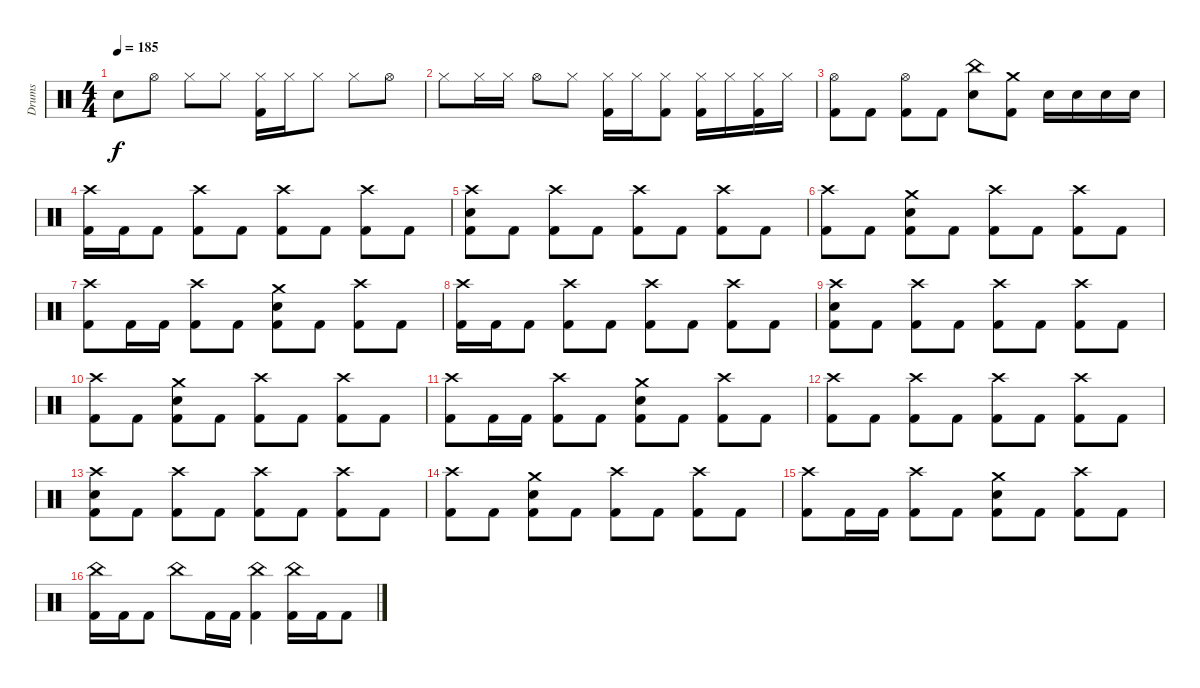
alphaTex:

\track ("Drums" "Drums") {instrument percussion}
\staff {score}
\articulation defaults
\ts (4 4)
\tempo 185
\clef neutral
\ks c "Electric Snare (hit)".8{dy f} "Hi-Hat (open)".8 "Hi-Hat (closed)".8 "Hi-Hat (closed)".8
("Hi-Hat (closed)" "Kick (hit) 2").16 "Hi-Hat (closed)".16 "Hi-Hat (closed)".8 "Hi-Hat (closed)".8 "Hi-Hat (open)".8 |
"Hi-Hat (closed)".8 "Hi-Hat (closed)".16 "Hi-Hat (closed)".16 "Hi-Hat (open)".8 "Hi-Hat (closed)".8 ("Hi-Hat (closed)" "Kick (hit) 2").16 "Hi-Hat (closed)".16 ("Hi-Hat (closed)" "Kick (hit) 2").8 ("Hi-Hat (closed)" "Kick (hit) 2").16 "Hi-Hat (closed)".16 ("Hi-Hat (closed)" "Kick (hit) 2").16 "Hi-Hat (closed)".16 |
("Hi-Hat (open)" "Kick (hit) 2").8 "Kick (hit) 2".8 ("Hi-Hat (open)" "Kick (hit) 2").8 "Kick (hit) 2".8 ("China (hit)" "Electric Snare (hit)").8 ("Crash medium (hit)" "Kick (hit) 2").8 "Electric Snare (hit)".16 "Electric Snare (hit)".16 "Electric Snare (hit)".16 "Electric Snare (hit)".16 |
("Crash high (hit)" "Kick (hit) 2").16 "Kick (hit) 2".16 "Kick (hit) 2".8 ("Crash high (hit)" "Kick (hit) 2").8 "Kick (hit) 2".8 ("Crash high (hit)" "Kick (hit) 2").8 "Kick (hit) 2".8 ("Crash high (hit)" "Kick (hit) 2").8 "Kick (hit) 2".8 |
("Crash high (hit)" "Electric Snare (hit)" "Kick (hit) 2").8 "Kick (hit) 2".8 ("Crash high (hit)" "Kick (hit) 2").8 "Kick (hit) 2".8 ("Crash high (hit)" "Kick (hit) 2").8 "Kick (hit) 2".8 ("Crash high (hit)" "Kick (hit) 2").8 "Kick (hit) 2".8 |
("Crash high (hit)" "Kick (hit) 2").8 "Kick (hit) 2".8 ("Crash medium (hit)" "Electric Snare (hit)" "Kick (hit) 2").8 "Kick (hit) 2".8 ("Crash high (hit)" "Kick (hit) 2").8 "Kick (hit) 2".8 ("Crash high (hit)" "Kick (hit) 2").8 "Kick (hit) 2".8 |
("Crash high (hit)" "Kick (hit) 2").8 "Kick (hit) 2".16 "Kick (hit) 2".16 ("Crash high (hit)" "Kick (hit) 2").8 "Kick (hit) 2".8 ("Crash medium (hit)" "Electric Snare (hit)" "Kick (hit) 2").8 "Kick (hit) 2".8 ("Crash high (hit)" "Kick (hit) 2").8 "Kick (hit) 2".8 |
("Crash high (hit)" "Kick (hit) 2").16 "Kick (hit) 2".16 "Kick (hit) 2".8 ("Crash high (hit)" "Kick (hit) 2").8 "Kick (hit) 2".8 ("Crash high (hit)" "Kick (hit) 2").8 "Kick (hit) 2".8 ("Crash high (hit)" "Kick (hit) 2").8 "Kick (hit) 2".8 |
("Crash high (hit)" "Electric Snare (hit)" "Kick (hit) 2").8 "Kick (hit) 2".8 ("Crash high (hit)" "Kick (hit) 2").8 "Kick (hit) 2".8 ("Crash high (hit)" "Kick (hit) 2").8 "Kick (hit) 2".8 ("Crash high (hit)" "Kick (hit) 2").8 "Kick (hit) 2".8 |
("Crash high (hit)" "Kick (hit) 2").8 "Kick (hit) 2".8 ("Crash medium (hit)" "Electric Snare (hit)" "Kick (hit) 2").8 "Kick (hit) 2".8 ("Crash high (hit)" "Kick (hit) 2").8 "Kick (hit) 2".8 ("Crash high (hit)" "Kick (hit) 2").8 "Kick (hit) 2".8 |
("Crash high (hit)" "Kick (hit) 2").8 "Kick (hit) 2".16 "Kick (hit) 2".16 ("Crash high (hit)" "Kick (hit) 2").8 "Kick (hit) 2".8 ("Crash medium (hit)" "Electric Snare (hit)" "Kick (hit) 2").8 "Kick (hit) 2".8 ("Crash high (hit)" "Kick (hit) 2").8 "Kick (hit) 2".8 |
("Crash high (hit)" "Kick (hit) 2").8 "Kick (hit) 2".8 ("Crash high (hit)" "Kick (hit) 2").8 "Kick (hit) 2".8 ("Crash high (hit)" "Kick (hit) 2").8 "Kick (hit) 2".8 ("Crash high (hit)" "Kick (hit) 2").8 "Kick (hit) 2".8 |
("Crash high (hit)" "Electric Snare (hit)" "Kick (hit) 2").8 "Kick (hit) 2".8 ("Crash high (hit)" "Kick (hit) 2").8 "Kick (hit) 2".8 ("Crash high (hit)" "Kick (hit) 2").8 "Kick (hit) 2".8 ("Crash high (hit)" "Kick (hit) 2").8 "Kick (hit) 2".8 |
("Crash high (hit)" "Kick (hit) 2").8 "Kick (hit) 2".8 ("Crash medium (hit)" "Electric Snare (hit)" "Kick (hit) 2").8 "Kick (hit) 2".8 ("Crash high (hit)" "Kick (hit) 2").8 "Kick (hit) 2".8 ("Crash high (hit)" "Kick (hit) 2").8 "Kick (hit) 2".8 |
("Crash high (hit)" "Kick (hit) 2").8 "Kick (hit) 2".16 "Kick (hit) 2".16 ("Crash high (hit)" "Kick (hit) 2").8 "Kick (hit) 2".8 ("Crash medium (hit)" "Electric Snare (hit)" "Kick (hit) 2").8 "Kick (hit) 2".8 ("Crash high (hit)" "Kick (hit) 2").8 "Kick (hit) 2".8 |
("China (hit)" "Kick (hit) 2").16 "Kick (hit) 2".16 "Kick (hit) 2".8 "China (hit)".8 "Kick (hit) 2".16 "Kick (hit) 2".16 ("China (hit)" "Kick (hit) 2").4 ("China (hit)" "Kick (hit) 2").16 "Kick (hit) 2".16 "Kick (hit) 2".8
